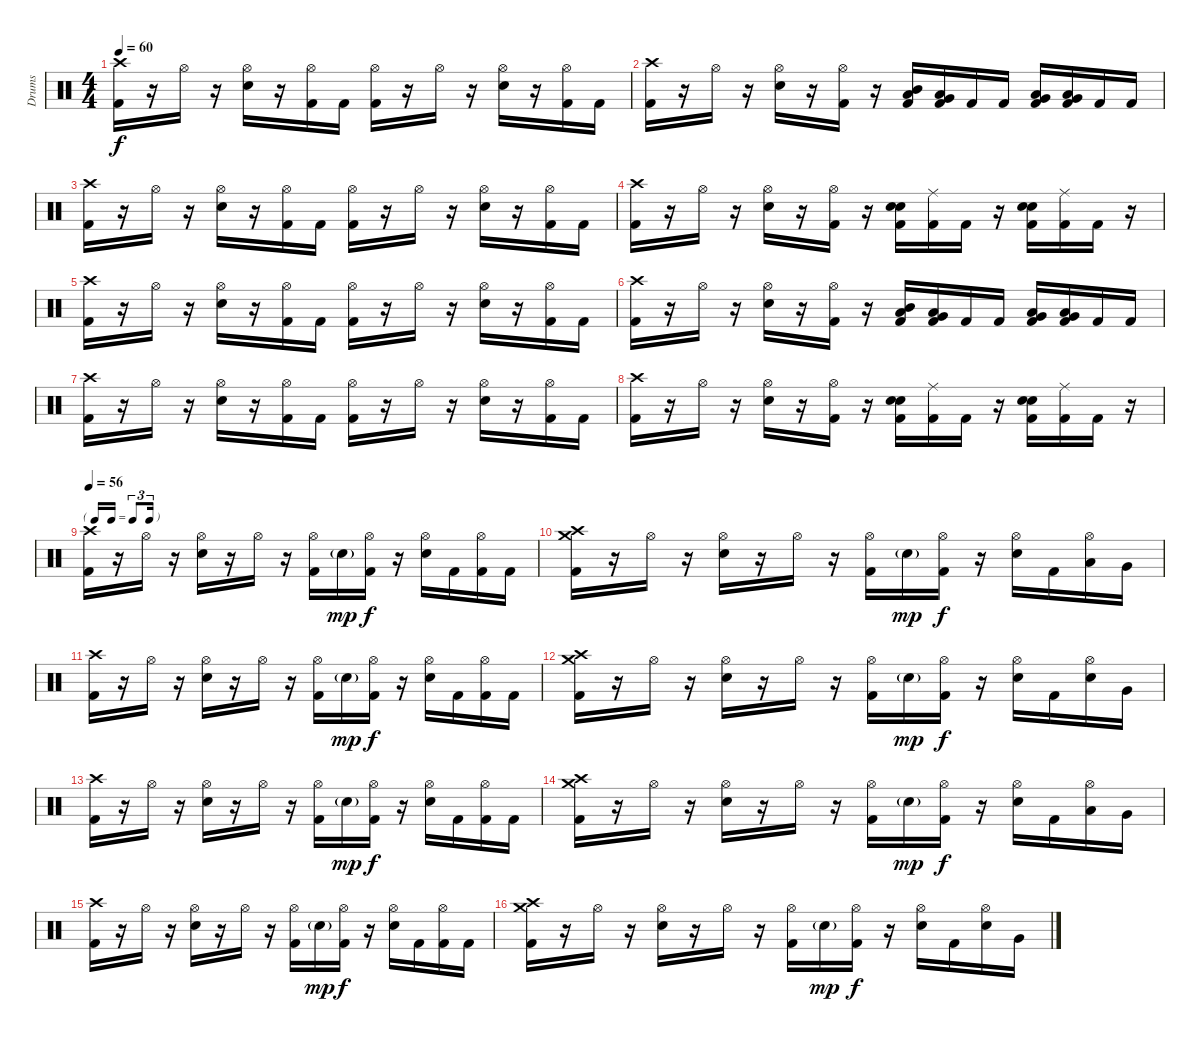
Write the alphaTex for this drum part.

\track ("Drums" "Drums") {instrument percussion}
\staff
\articulation defaults
\ts (4 4)
\tempo 60
\clef neutral
\ks c
("Kick (hit) 2" "Crash high (hit)").16{dy f} r.16 "Hi-Hat (open)".16 r.16 ("Electric Snare (hit)" "Hi-Hat (open)").16 r.16 ("Kick (hit) 2" "Hi-Hat (open)").16 "Kick (hit) 2".16 ("Kick (hit) 2" "Hi-Hat (open)").16 r.16 "Hi-Hat (open)".16 r.16 ("Electric Snare (hit)" "Hi-Hat (open)").16 r.16 ("Kick (hit) 2" "Hi-Hat (open)").16 "Kick (hit) 2".16 |
("Kick (hit) 2" "Crash high (hit)").16 r.16 "Hi-Hat (open)".16 r.16 ("Electric Snare (hit)" "Hi-Hat (open)").16 r.16 ("Kick (hit) 2" "Hi-Hat (open)").16 r.16 ("Kick (hit) 2" "Mid Tom (hit)" "Low Tom (hit)").16 ("Kick (hit) 2" "Low Tom (hit)" "Very Low Tom (hit)").16 "Kick (hit) 2".16 "Kick (hit) 2".16 ("Kick (hit) 2" "Very Low Tom (hit)" "Low Tom (hit)").16 ("Kick (hit) 2" "Very Low Tom (hit)" "Low Floor Tom (hit)").16 "Kick (hit) 2".16 "Kick (hit) 2".16 |
("Kick (hit) 2" "Crash high (hit)").16 r.16 "Hi-Hat (open)".16 r.16 ("Electric Snare (hit)" "Hi-Hat (open)").16 r.16 ("Kick (hit) 2" "Hi-Hat (open)").16 "Kick (hit) 2".16 ("Kick (hit) 2" "Hi-Hat (open)").16 r.16 "Hi-Hat (open)".16 r.16 ("Electric Snare (hit)" "Hi-Hat (open)").16 r.16 ("Kick (hit) 2" "Hi-Hat (open)").16 "Kick (hit) 2".16 |
("Kick (hit) 2" "Crash high (hit)").16 r.16 "Hi-Hat (open)".16 r.16 ("Electric Snare (hit)" "Hi-Hat (open)").16 r.16 ("Kick (hit) 2" "Hi-Hat (open)").16 r.16 ("Kick (hit) 2" "Electric Snare (hit)" "Electric Snare (hit)").16{bd 60} ("Kick (hit) 2" "Ride (middle)").16 "Kick (hit) 2".16 r.16 ("Kick (hit) 2" "Electric Snare (hit)" "Electric Snare (hit)").16{bd 60} ("Kick (hit) 2" "Ride (middle)").16 "Kick (hit) 2".16 r.16 |
("Kick (hit) 2" "Crash high (hit)").16 r.16 "Hi-Hat (open)".16 r.16 ("Electric Snare (hit)" "Hi-Hat (open)").16 r.16 ("Kick (hit) 2" "Hi-Hat (open)").16 "Kick (hit) 2".16 ("Kick (hit) 2" "Hi-Hat (open)").16 r.16 "Hi-Hat (open)".16 r.16 ("Electric Snare (hit)" "Hi-Hat (open)").16 r.16 ("Kick (hit) 2" "Hi-Hat (open)").16 "Kick (hit) 2".16 |
("Kick (hit) 2" "Crash high (hit)").16 r.16 "Hi-Hat (open)".16 r.16 ("Electric Snare (hit)" "Hi-Hat (open)").16 r.16 ("Kick (hit) 2" "Hi-Hat (open)").16 r.16 ("Kick (hit) 2" "Mid Tom (hit)" "Low Tom (hit)").16 ("Kick (hit) 2" "Low Tom (hit)" "Very Low Tom (hit)").16 "Kick (hit) 2".16 "Kick (hit) 2".16 ("Kick (hit) 2" "Very Low Tom (hit)" "Low Tom (hit)").16 ("Kick (hit) 2" "Very Low Tom (hit)" "Low Floor Tom (hit)").16 "Kick (hit) 2".16 "Kick (hit) 2".16 |
("Kick (hit) 2" "Crash high (hit)").16 r.16 "Hi-Hat (open)".16 r.16 ("Electric Snare (hit)" "Hi-Hat (open)").16 r.16 ("Kick (hit) 2" "Hi-Hat (open)").16 "Kick (hit) 2".16 ("Kick (hit) 2" "Hi-Hat (open)").16 r.16 "Hi-Hat (open)".16 r.16 ("Electric Snare (hit)" "Hi-Hat (open)").16 r.16 ("Kick (hit) 2" "Hi-Hat (open)").16 "Kick (hit) 2".16 |
("Kick (hit) 2" "Crash high (hit)").16 r.16 "Hi-Hat (open)".16 r.16 ("Electric Snare (hit)" "Hi-Hat (open)").16 r.16 ("Kick (hit) 2" "Hi-Hat (open)").16 r.16 ("Kick (hit) 2" "Electric Snare (hit)" "Electric Snare (hit)").16{bd 60} ("Kick (hit) 2" "Ride (middle)").16 "Kick (hit) 2".16 r.16 ("Kick (hit) 2" "Electric Snare (hit)" "Electric Snare (hit)").16{bd 60} ("Kick (hit) 2" "Ride (middle)").16 "Kick (hit) 2".16 r.16 |
\tf triplet16th
\tempo 56
("Kick (hit) 2" "Crash high (hit)").16 r.16 "Hi-Hat (open)".16 r.16 ("Electric Snare (hit)" "Hi-Hat (open)").16 r.16 "Hi-Hat (open)".16 r.16 ("Kick (hit) 2" "Hi-Hat (open)").16 "Electric Snare (hit)"{g}.16{dy mp} ("Kick (hit) 2" "Hi-Hat (open)").16{dy f} r.16 ("Electric Snare (hit)" "Hi-Hat (open)").16 "Kick (hit) 2".16 ("Kick (hit) 2" "Hi-Hat (open)").16 "Kick (hit) 2".16 |
("Kick (hit) 2" "Crash high (hit)" "Crash medium (hit)").16 r.16 "Hi-Hat (open)".16 r.16 ("Electric Snare (hit)" "Hi-Hat (open)").16 r.16 "Hi-Hat (open)".16 r.16 ("Kick (hit) 2" "Hi-Hat (open)").16 "Electric Snare (hit)"{g}.16{dy mp} ("Kick (hit) 2" "Hi-Hat (open)").16{dy f} r.16 ("Electric Snare (hit)" "Hi-Hat (open)").16 "Kick (hit) 2".16 ("Low Tom (hit)" "Hi-Hat (open)").16 "Very Low Tom (hit)".16 |
("Kick (hit) 2" "Crash high (hit)").16 r.16 "Hi-Hat (open)".16 r.16 ("Electric Snare (hit)" "Hi-Hat (open)").16 r.16 "Hi-Hat (open)".16 r.16 ("Kick (hit) 2" "Hi-Hat (open)").16 "Electric Snare (hit)"{g}.16{dy mp} ("Kick (hit) 2" "Hi-Hat (open)").16{dy f} r.16 ("Electric Snare (hit)" "Hi-Hat (open)").16 "Kick (hit) 2".16 ("Kick (hit) 2" "Hi-Hat (open)").16 "Kick (hit) 2".16 |
("Kick (hit) 2" "Crash high (hit)" "Crash medium (hit)").16 r.16 "Hi-Hat (open)".16 r.16 ("Electric Snare (hit)" "Hi-Hat (open)").16 r.16 "Hi-Hat (open)".16 r.16 ("Kick (hit) 2" "Hi-Hat (open)").16 "Electric Snare (hit)"{g}.16{dy mp} ("Kick (hit) 2" "Hi-Hat (open)").16{dy f} r.16 ("Electric Snare (hit)" "Hi-Hat (open)").16 "Kick (hit) 2".16 ("Electric Snare (hit)" "Hi-Hat (open)").16 "Very Low Tom (hit)".16 |
("Kick (hit) 2" "Crash high (hit)").16 r.16 "Hi-Hat (open)".16 r.16 ("Electric Snare (hit)" "Hi-Hat (open)").16 r.16 "Hi-Hat (open)".16 r.16 ("Kick (hit) 2" "Hi-Hat (open)").16 "Electric Snare (hit)"{g}.16{dy mp} ("Kick (hit) 2" "Hi-Hat (open)").16{dy f} r.16 ("Electric Snare (hit)" "Hi-Hat (open)").16 "Kick (hit) 2".16 ("Kick (hit) 2" "Hi-Hat (open)").16 "Kick (hit) 2".16 |
("Kick (hit) 2" "Crash high (hit)" "Crash medium (hit)").16 r.16 "Hi-Hat (open)".16 r.16 ("Electric Snare (hit)" "Hi-Hat (open)").16 r.16 "Hi-Hat (open)".16 r.16 ("Kick (hit) 2" "Hi-Hat (open)").16 "Electric Snare (hit)"{g}.16{dy mp} ("Kick (hit) 2" "Hi-Hat (open)").16{dy f} r.16 ("Electric Snare (hit)" "Hi-Hat (open)").16 "Kick (hit) 2".16 ("Low Tom (hit)" "Hi-Hat (open)").16 "Very Low Tom (hit)".16 |
("Kick (hit) 2" "Crash high (hit)").16 r.16 "Hi-Hat (open)".16 r.16 ("Electric Snare (hit)" "Hi-Hat (open)").16 r.16 "Hi-Hat (open)".16 r.16 ("Kick (hit) 2" "Hi-Hat (open)").16 "Electric Snare (hit)"{g}.16{dy mp} ("Kick (hit) 2" "Hi-Hat (open)").16{dy f} r.16 ("Electric Snare (hit)" "Hi-Hat (open)").16 "Kick (hit) 2".16 ("Kick (hit) 2" "Hi-Hat (open)").16 "Kick (hit) 2".16 |
("Kick (hit) 2" "Crash high (hit)" "Crash medium (hit)").16 r.16 "Hi-Hat (open)".16 r.16 ("Electric Snare (hit)" "Hi-Hat (open)").16 r.16 "Hi-Hat (open)".16 r.16 ("Kick (hit) 2" "Hi-Hat (open)").16 "Electric Snare (hit)"{g}.16{dy mp} ("Kick (hit) 2" "Hi-Hat (open)").16{dy f} r.16 ("Electric Snare (hit)" "Hi-Hat (open)").16 "Kick (hit) 2".16 ("Electric Snare (hit)" "Hi-Hat (open)").16 "Very Low Tom (hit)".16
